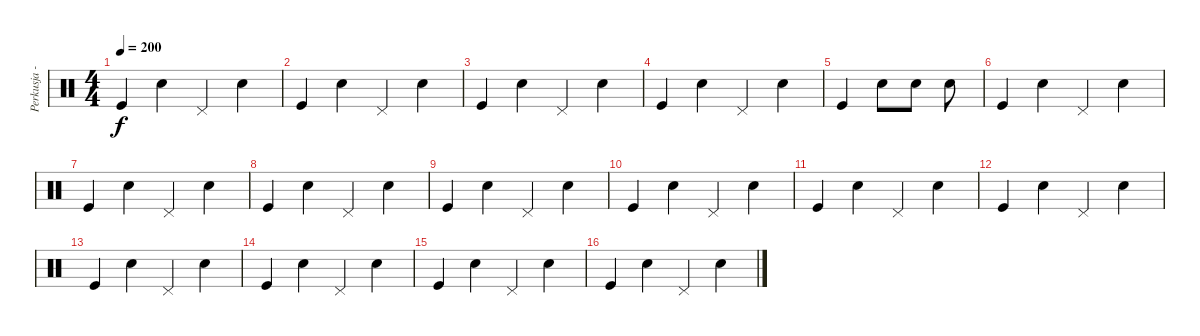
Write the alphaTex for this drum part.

\track ("Perkusja - J. Olejarz" "Perkusja -") {instrument percussion}
\staff {score}
\articulation defaults
\ts (4 4)
\tempo 200
\clef neutral
\ks c "Kick (hit)".4{dy f} "Electric Snare (hit)".4 "Pedal Hi-Hat (hit)".4 "Electric Snare (hit)".4
|
"Kick (hit)".4 "Electric Snare (hit)".4 "Pedal Hi-Hat (hit)".4 "Electric Snare (hit)".4 |
"Kick (hit)".4 "Electric Snare (hit)".4 "Pedal Hi-Hat (hit)".4 "Electric Snare (hit)".4 |
"Kick (hit)".4 "Electric Snare (hit)".4 "Pedal Hi-Hat (hit)".4 "Electric Snare (hit)".4 |
"Kick (hit)".4 "Snare (hit) 2".8 "Snare (hit) 2".8 "Snare (hit) 2".8 |
"Kick (hit)".4 "Electric Snare (hit)".4 "Pedal Hi-Hat (hit)".4 "Electric Snare (hit)".4 |
"Kick (hit)".4 "Electric Snare (hit)".4 "Pedal Hi-Hat (hit)".4 "Electric Snare (hit)".4 |
"Kick (hit)".4 "Electric Snare (hit)".4 "Pedal Hi-Hat (hit)".4 "Electric Snare (hit)".4 |
"Kick (hit)".4 "Electric Snare (hit)".4 "Pedal Hi-Hat (hit)".4 "Electric Snare (hit)".4 |
"Kick (hit)".4 "Electric Snare (hit)".4 "Pedal Hi-Hat (hit)".4 "Electric Snare (hit)".4 |
"Kick (hit)".4 "Electric Snare (hit)".4 "Pedal Hi-Hat (hit)".4 "Electric Snare (hit)".4 |
"Kick (hit)".4 "Electric Snare (hit)".4 "Pedal Hi-Hat (hit)".4 "Electric Snare (hit)".4 |
"Kick (hit)".4 "Electric Snare (hit)".4 "Pedal Hi-Hat (hit)".4 "Electric Snare (hit)".4 |
"Kick (hit)".4 "Electric Snare (hit)".4 "Pedal Hi-Hat (hit)".4 "Electric Snare (hit)".4 |
"Kick (hit)".4 "Electric Snare (hit)".4 "Pedal Hi-Hat (hit)".4 "Electric Snare (hit)".4 |
"Kick (hit)".4 "Electric Snare (hit)".4 "Pedal Hi-Hat (hit)".4 "Electric Snare (hit)".4
